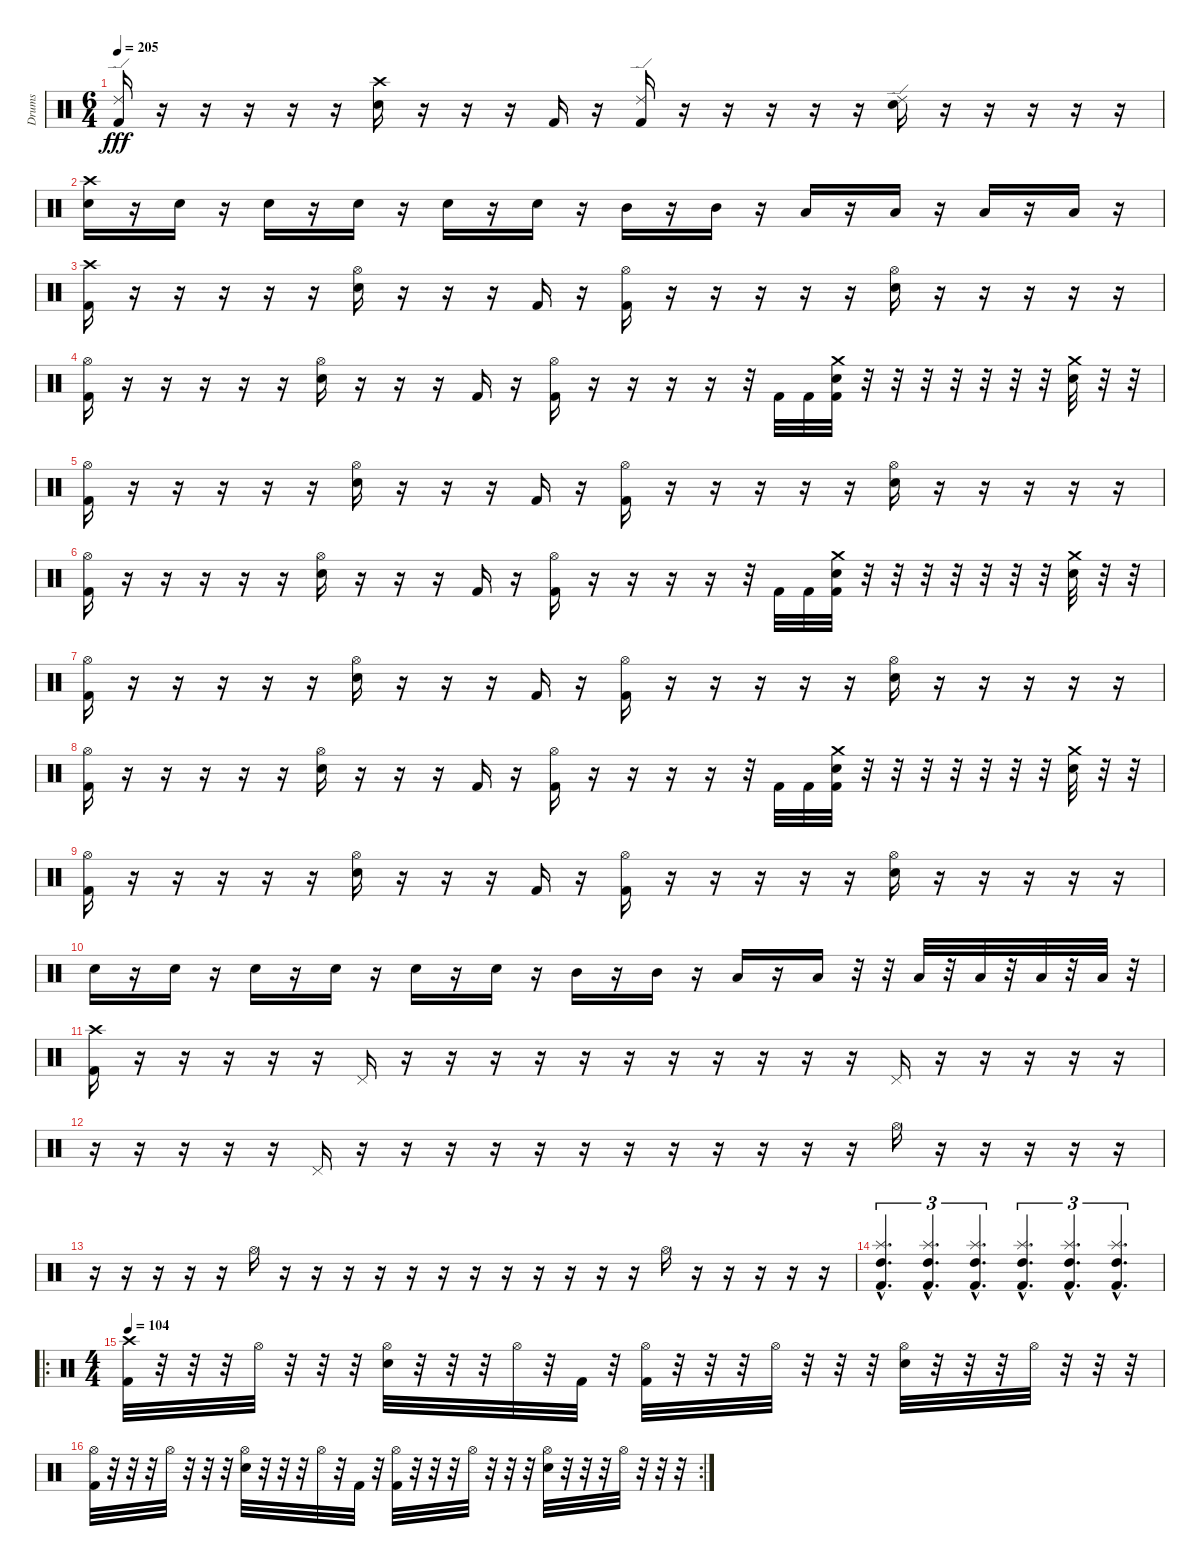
\track ("Drums" "Drums") {instrument percussion}
\staff {score}
\articulation defaults
\ts (6 4)
\tempo 205
\clef neutral
\ks c
("Ride (edge) 2" "Kick (hit) 2").16{dy fff} r.16 r.16 r.16 r.16 r.16 ("Crash high (hit)" "Snare (hit) 2").16 r.16 r.16 r.16 "Kick (hit) 2".16 r.16 ("Ride (edge) 2" "Kick (hit) 2").16 r.16 r.16 r.16 r.16 r.16 ("Ride (edge) 2" "Snare (hit) 2").16 r.16 r.16 r.16 r.16 r.16 |
("Crash high (hit)" "Snare (hit) 2").16 r.16 "Snare (hit) 2".16 r.16 "Snare (hit) 2".16 r.16 "Snare (hit) 2".16 r.16 "Snare (hit) 2".16 r.16 "Snare (hit) 2".16 r.16 "Mid Tom (hit)".16 r.16 "Mid Tom (hit)".16 r.16 "Low Tom (hit)".16 r.16 "Low Tom (hit)".16 r.16 "Low Tom (hit)".16 r.16 "Low Tom (hit)".16 r.16 |
("Crash high (hit)" "Kick (hit) 2").16 r.16 r.16 r.16 r.16 r.16 ("Hi-Hat (open)" "Snare (hit) 2").16 r.16 r.16 r.16 "Kick (hit) 2".16 r.16 ("Hi-Hat (open)" "Kick (hit) 2").16 r.16 r.16 r.16 r.16 r.16 ("Hi-Hat (open)" "Snare (hit) 2").16 r.16 r.16 r.16 r.16 r.16 |
("Hi-Hat (open)" "Kick (hit) 2").16 r.16 r.16 r.16 r.16 r.16 ("Hi-Hat (open)" "Snare (hit) 2").16 r.16 r.16 r.16 "Kick (hit) 2".16 r.16 ("Hi-Hat (open)" "Kick (hit) 2").16 r.16 r.16 r.16 r.16 r.32 "Kick (hit) 2".32 "Kick (hit) 2".32 ("Crash medium (hit)" "Snare (hit) 2" "Kick (hit) 2").32 r.32 r.32 r.32 r.32 r.32 r.32 r.32 ("Crash medium (hit)" "Snare (hit) 2").32 r.32 r.32 |
("Hi-Hat (open)" "Kick (hit) 2").16 r.16 r.16 r.16 r.16 r.16 ("Hi-Hat (open)" "Snare (hit) 2").16 r.16 r.16 r.16 "Kick (hit) 2".16 r.16 ("Hi-Hat (open)" "Kick (hit) 2").16 r.16 r.16 r.16 r.16 r.16 ("Hi-Hat (open)" "Snare (hit) 2").16 r.16 r.16 r.16 r.16 r.16 |
("Hi-Hat (open)" "Kick (hit) 2").16 r.16 r.16 r.16 r.16 r.16 ("Hi-Hat (open)" "Snare (hit) 2").16 r.16 r.16 r.16 "Kick (hit) 2".16 r.16 ("Hi-Hat (open)" "Kick (hit) 2").16 r.16 r.16 r.16 r.16 r.32 "Kick (hit) 2".32 "Kick (hit) 2".32 ("Crash medium (hit)" "Snare (hit) 2" "Kick (hit) 2").32 r.32 r.32 r.32 r.32 r.32 r.32 r.32 ("Crash medium (hit)" "Snare (hit) 2").32 r.32 r.32 |
("Hi-Hat (open)" "Kick (hit) 2").16 r.16 r.16 r.16 r.16 r.16 ("Hi-Hat (open)" "Snare (hit) 2").16 r.16 r.16 r.16 "Kick (hit) 2".16 r.16 ("Hi-Hat (open)" "Kick (hit) 2").16 r.16 r.16 r.16 r.16 r.16 ("Hi-Hat (open)" "Snare (hit) 2").16 r.16 r.16 r.16 r.16 r.16 |
("Hi-Hat (open)" "Kick (hit) 2").16 r.16 r.16 r.16 r.16 r.16 ("Hi-Hat (open)" "Snare (hit) 2").16 r.16 r.16 r.16 "Kick (hit) 2".16 r.16 ("Hi-Hat (open)" "Kick (hit) 2").16 r.16 r.16 r.16 r.16 r.32 "Kick (hit) 2".32 "Kick (hit) 2".32 ("Crash medium (hit)" "Snare (hit) 2" "Kick (hit) 2").32 r.32 r.32 r.32 r.32 r.32 r.32 r.32 ("Crash medium (hit)" "Snare (hit) 2").32 r.32 r.32 |
("Hi-Hat (open)" "Kick (hit) 2").16 r.16 r.16 r.16 r.16 r.16 ("Hi-Hat (open)" "Snare (hit) 2").16 r.16 r.16 r.16 "Kick (hit) 2".16 r.16 ("Hi-Hat (open)" "Kick (hit) 2").16 r.16 r.16 r.16 r.16 r.16 ("Hi-Hat (open)" "Snare (hit) 2").16 r.16 r.16 r.16 r.16 r.16 |
"Snare (hit) 2".16 r.16 "Snare (hit) 2".16 r.16 "Snare (hit) 2".16 r.16 "Snare (hit) 2".16 r.16 "Snare (hit) 2".16 r.16 "Snare (hit) 2".16 r.16 "Mid Tom (hit)".16 r.16 "Mid Tom (hit)".16 r.16 "Low Tom (hit)".16 r.16 "Low Tom (hit)".16 r.32 r.32 "Low Tom (hit)".32 r.32 "Low Tom (hit)".32 r.32 "Low Tom (hit)".32 r.32 "Low Tom (hit)".32 r.32 |
("Crash high (hit)" "Kick (hit) 2").16 r.16 r.16 r.16 r.16 r.16 "Pedal Hi-Hat (hit)".16 r.16 r.16 r.16 r.16 r.16 r.16 r.16 r.16 r.16 r.16 r.16 "Pedal Hi-Hat (hit)".16 r.16 r.16 r.16 r.16 r.16 |
r.16 r.16 r.16 r.16 r.16 "Pedal Hi-Hat (hit)".16 r.16 r.16 r.16 r.16 r.16 r.16 r.16 r.16 r.16 r.16 r.16 r.16 "Hi-Hat (open)".16 r.16 r.16 r.16 r.16 r.16 |
r.16 r.16 r.16 r.16 r.16 "Hi-Hat (open)".16 r.16 r.16 r.16 r.16 r.16 r.16 r.16 r.16 r.16 r.16 r.16 r.16 "Hi-Hat (open)".16 r.16 r.16 r.16 r.16 r.16 |
("Splash (hit)"{hac} "High Tom (hit)"{hac} "Kick (hit) 2"{hac}).4{d tu (3 2)} ("Splash (hit)"{hac} "High Tom (hit)"{hac} "Kick (hit) 2"{hac}).4{d tu (3 2)} ("Splash (hit)"{hac} "High Tom (hit)"{hac} "Kick (hit) 2"{hac}).4{d tu (3 2)} ("Splash (hit)"{hac} "High Tom (hit)"{hac} "Kick (hit) 2"{hac}).4{d tu (3 2)} ("Splash (hit)"{hac} "High Tom (hit)"{hac} "Kick (hit) 2"{hac}).4{d tu (3 2)} ("Splash (hit)"{hac} "High Tom (hit)"{hac} "Kick (hit) 2"{hac}).4{d tu (3 2)} |
\ro
\ts (4 4)
\tempo 104
("Crash high (hit)" "Kick (hit) 2").32 r.32 r.32 r.32 "Hi-Hat (open)".32 r.32 r.32 r.32 ("Hi-Hat (open)" "Snare (hit) 2").32 r.32 r.32 r.32 "Hi-Hat (open)".32 r.32 "Kick (hit) 2".32 r.32 ("Hi-Hat (open)" "Kick (hit) 2").32 r.32 r.32 r.32 "Hi-Hat (open)".32 r.32 r.32 r.32 ("Hi-Hat (open)" "Snare (hit) 2").32 r.32 r.32 r.32 "Hi-Hat (open)".32 r.32 r.32 r.32 |
\rc 2
("Hi-Hat (open)" "Kick (hit) 2").32 r.32 r.32 r.32 "Hi-Hat (open)".32 r.32 r.32 r.32 ("Hi-Hat (open)" "Snare (hit) 2").32 r.32 r.32 r.32 "Hi-Hat (open)".32 r.32 "Kick (hit) 2".32 r.32 ("Hi-Hat (open)" "Kick (hit) 2").32 r.32 r.32 r.32 "Hi-Hat (open)".32 r.32 r.32 r.32 ("Hi-Hat (open)" "Snare (hit) 2").32 r.32 r.32 r.32 "Hi-Hat (open)".32 r.32 r.32 r.32
